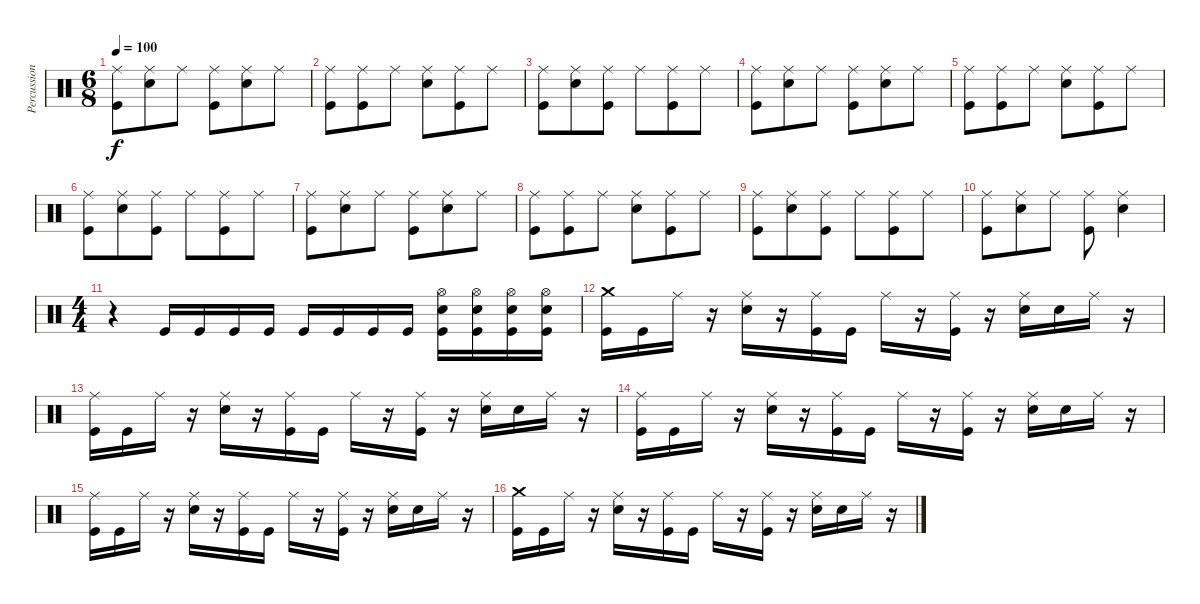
\track ("Percussions" "Percussion") {instrument percussion}
\staff {score}
\articulation defaults
\ts (6 8)
\tempo 100
\clef neutral
\ks c
("Ride (middle)" "Kick (hit)").8{dy f} ("Ride (middle)" "Electric Snare (hit)").8 "Ride (middle)".8 ("Ride (middle)" "Kick (hit)").8 ("Ride (middle)" "Electric Snare (hit)").8 "Ride (middle)".8 |
("Ride (middle)" "Kick (hit)").8 ("Ride (middle)" "Kick (hit)").8 "Ride (middle)".8 ("Ride (middle)" "Electric Snare (hit)").8 ("Ride (middle)" "Kick (hit)").8 "Ride (middle)".8 |
("Ride (middle)" "Kick (hit)").8 ("Ride (middle)" "Electric Snare (hit)").8 ("Ride (middle)" "Kick (hit)").8 "Ride (middle)".8 ("Ride (middle)" "Kick (hit)").8 "Ride (middle)".8 |
("Ride (middle)" "Kick (hit)").8 ("Ride (middle)" "Electric Snare (hit)").8 "Ride (middle)".8 ("Ride (middle)" "Kick (hit)").8 ("Ride (middle)" "Electric Snare (hit)").8 "Ride (middle)".8 |
("Ride (middle)" "Kick (hit)").8 ("Ride (middle)" "Kick (hit)").8 "Ride (middle)".8 ("Ride (middle)" "Electric Snare (hit)").8 ("Ride (middle)" "Kick (hit)").8 "Ride (middle)".8 |
("Ride (middle)" "Kick (hit)").8 ("Ride (middle)" "Electric Snare (hit)").8 ("Ride (middle)" "Kick (hit)").8 "Ride (middle)".8 ("Ride (middle)" "Kick (hit)").8 "Ride (middle)".8 |
("Ride (middle)" "Kick (hit)").8 ("Ride (middle)" "Electric Snare (hit)").8 "Ride (middle)".8 ("Ride (middle)" "Kick (hit)").8 ("Ride (middle)" "Electric Snare (hit)").8 "Ride (middle)".8 |
("Ride (middle)" "Kick (hit)").8 ("Ride (middle)" "Kick (hit)").8 "Ride (middle)".8 ("Ride (middle)" "Electric Snare (hit)").8 ("Ride (middle)" "Kick (hit)").8 "Ride (middle)".8 |
("Ride (middle)" "Kick (hit)").8 ("Ride (middle)" "Electric Snare (hit)").8 ("Ride (middle)" "Kick (hit)").8 "Ride (middle)".8 ("Ride (middle)" "Kick (hit)").8 "Ride (middle)".8 |
("Ride (middle)" "Kick (hit)").8 ("Ride (middle)" "Electric Snare (hit)").8 "Ride (middle)".8 ("Ride (middle)" "Kick (hit)").8 ("Ride (middle)" "Electric Snare (hit)").4 |
\ts (4 4)
r.4 "Kick (hit)".16 "Kick (hit)".16 "Kick (hit)".16 "Kick (hit)".16 "Kick (hit)".16 "Kick (hit)".16 "Kick (hit)".16 "Kick (hit)".16 ("Hi-Hat (open)" "Electric Snare (hit)" "Kick (hit)").16 ("Hi-Hat (open)" "Electric Snare (hit)" "Kick (hit)").16 ("Hi-Hat (open)" "Electric Snare (hit)" "Kick (hit)").16 ("Hi-Hat (open)" "Electric Snare (hit)" "Kick (hit)").16 |
("Crash medium (hit)" "Kick (hit)").16 "Kick (hit)".16 "Ride (middle)".16 r.16 ("Ride (middle)" "Electric Snare (hit)").16 r.16 ("Ride (middle)" "Kick (hit)").16 "Kick (hit)".16 "Ride (middle)".16 r.16 ("Ride (middle)" "Kick (hit)").16 r.16 ("Ride (middle)" "Electric Snare (hit)").16 "Electric Snare (hit)".16 "Ride (middle)".16 r.16 |
("Ride (middle)" "Kick (hit)").16 "Kick (hit)".16 "Ride (middle)".16 r.16 ("Ride (middle)" "Electric Snare (hit)").16 r.16 ("Ride (middle)" "Kick (hit)").16 "Kick (hit)".16 "Ride (middle)".16 r.16 ("Ride (middle)" "Kick (hit)").16 r.16 ("Ride (middle)" "Electric Snare (hit)").16 "Electric Snare (hit)".16 "Ride (middle)".16 r.16 |
("Ride (middle)" "Kick (hit)").16 "Kick (hit)".16 "Ride (middle)".16 r.16 ("Ride (middle)" "Electric Snare (hit)").16 r.16 ("Ride (middle)" "Kick (hit)").16 "Kick (hit)".16 "Ride (middle)".16 r.16 ("Ride (middle)" "Kick (hit)").16 r.16 ("Ride (middle)" "Electric Snare (hit)").16 "Electric Snare (hit)".16 "Ride (middle)".16 r.16 |
("Ride (middle)" "Kick (hit)").16 "Kick (hit)".16 "Ride (middle)".16 r.16 ("Ride (middle)" "Electric Snare (hit)").16 r.16 ("Ride (middle)" "Kick (hit)").16 "Kick (hit)".16 "Ride (middle)".16 r.16 ("Ride (middle)" "Kick (hit)").16 r.16 ("Ride (middle)" "Electric Snare (hit)").16 "Electric Snare (hit)".16 "Ride (middle)".16 r.16 |
("Crash medium (hit)" "Kick (hit)").16 "Kick (hit)".16 "Ride (middle)".16 r.16 ("Ride (middle)" "Electric Snare (hit)").16 r.16 ("Ride (middle)" "Kick (hit)").16 "Kick (hit)".16 "Ride (middle)".16 r.16 ("Ride (middle)" "Kick (hit)").16 r.16 ("Ride (middle)" "Electric Snare (hit)").16 "Electric Snare (hit)".16 "Ride (middle)".16 r.16
